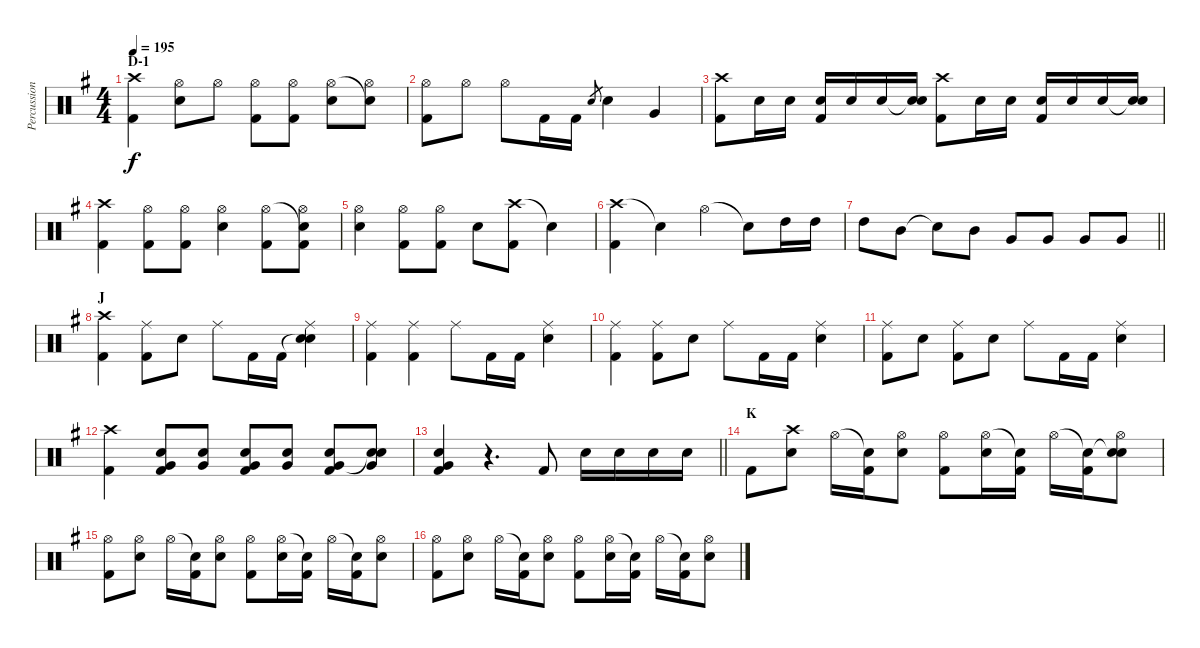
\track ("Percussion" "Percussion") {instrument percussion}
\staff {score}
\articulation defaults
\ts (4 4)
\section ("" "D-1")
\tempo 195
\clef neutral
\ks g
("Crash high (hit)" "Kick (hit) 2").4{dy f} ("Hi-Hat (open)" "Electric Snare (hit)").8 "Hi-Hat (open)".8 ("Hi-Hat (open)" "Kick (hit) 2").8 ("Hi-Hat (open)" "Kick (hit) 2").8 ("Hi-Hat (open)" "Electric Snare (hit)").8 ("Snare (hit)"{t} "Hi-Hat (open)").8 |
("Hi-Hat (open)" "Kick (hit) 2").8 "Hi-Hat (open)".8 "Hi-Hat (open)".8 "Kick (hit) 2".16 "Kick (hit) 2".16 "Electric Snare (hit)".8{gr} "Electric Snare (hit)".4 "Very Low Tom (hit)".4 |
("Crash high (hit)" "Kick (hit) 2").8 "Electric Snare (hit)".16 "Electric Snare (hit)".16 ("Electric Snare (hit)" "Kick (hit) 2").16 "Electric Snare (hit)".16 "Electric Snare (hit)".16 ("Snare (hit)"{t} "Electric Snare (hit)").16 ("Crash high (hit)" "Kick (hit) 2").8 "Electric Snare (hit)".16 "Electric Snare (hit)".16 ("Electric Snare (hit)" "Kick (hit) 2").16 "Electric Snare (hit)".16 "Electric Snare (hit)".16 ("Snare (hit)"{t} "Electric Snare (hit)").16 |
("Crash high (hit)" "Kick (hit) 2").4 ("Hi-Hat (open)" "Kick (hit) 2").8 ("Hi-Hat (open)" "Kick (hit) 2").8 ("Hi-Hat (open)" "Electric Snare (hit)").4 ("Hi-Hat (open)" "Kick (hit) 2").8 ("Snare (hit)"{t} "Hi-Hat (open)" "Kick (hit) 2").8 |
("Hi-Hat (open)" "Electric Snare (hit)").4 ("Hi-Hat (open)" "Kick (hit) 2").8 ("Hi-Hat (open)" "Kick (hit) 2").8 "Electric Snare (hit)".8 ("Crash high (hit)" "Kick (hit) 2").8 "Snare (hit)"{t}.4 |
("Crash high (hit)" "Kick (hit) 2").4 "Snare (hit)"{t}.4 "Hi-Hat (open)".4 "Snare (hit)"{t}.8 "High Tom (hit)".16 "High Tom (hit)".16 |
\barLineRight lightlight "High Tom (hit)".8 "Mid Tom (hit)".8 "Snare (hit)"{t}.8 "Mid Tom (hit)".8 "Very Low Tom (hit)".8 "Very Low Tom (hit)".8 "Very Low Tom (hit)".8 "Very Low Tom (hit)".8
|
\section ("" "J")
("Crash high (hit)" "Kick (hit) 2").4 ("Ride (middle)" "Kick (hit) 2").8 "Electric Snare (hit)".8 "Ride (middle)".8 "Kick (hit) 2".16 "Kick (hit) 2".16 ("Snare (hit)"{t} "Ride (middle)" "Electric Snare (hit)").4 |
("Ride (middle)" "Kick (hit) 2").4 ("Ride (middle)" "Kick (hit) 2").4 "Ride (middle)".8 "Kick (hit) 2".16 "Kick (hit) 2".16 ("Ride (middle)" "Electric Snare (hit)").4 |
("Ride (middle)" "Kick (hit) 2").4 ("Ride (middle)" "Kick (hit) 2").8 "Electric Snare (hit)".8 "Ride (middle)".8 "Kick (hit) 2".16 "Kick (hit) 2".16 ("Ride (middle)" "Electric Snare (hit)").4 |
("Ride (middle)" "Kick (hit) 2").8 "Electric Snare (hit)".8 ("Ride (middle)" "Kick (hit) 2").8 "Electric Snare (hit)".8 "Ride (middle)".8 "Kick (hit) 2".16 "Kick (hit) 2".16 ("Ride (middle)" "Electric Snare (hit)").4 |
("Crash high (hit)" "Kick (hit) 2").4 ("Very Low Tom (hit)" "Kick (hit) 2" "Electric Snare (hit)").8 ("Very Low Tom (hit)" "Electric Snare (hit)").8 ("Very Low Tom (hit)" "Kick (hit) 2" "Electric Snare (hit)").8 ("Very Low Tom (hit)" "Electric Snare (hit)").8 ("Very Low Tom (hit)" "Kick (hit) 2" "Electric Snare (hit)").8 ("Snare (hit)"{t} "Very Low Tom (hit)" "Electric Snare (hit)").8 |
\barLineRight lightlight
("Electric Snare (hit)" "Very Low Tom (hit)" "Kick (hit) 2").4 r.4{d} "Kick (hit) 2".8 "Electric Snare (hit)".16 "Electric Snare (hit)".16 "Electric Snare (hit)".16 "Electric Snare (hit)".16 |
\section ("" "K")
"Kick (hit) 2".8 ("Crash high (hit)" "Electric Snare (hit)").8 "Hi-Hat (open)".16 ("Snare (hit)"{t} "Kick (hit) 2").16 ("Hi-Hat (open)" "Electric Snare (hit)").8 ("Hi-Hat (open)" "Kick (hit) 2").8 ("Hi-Hat (open)" "Electric Snare (hit)").16 ("Snare (hit)"{t} "Kick (hit) 2").16 "Hi-Hat (open)".16 ("Snare (hit)"{t} "Kick (hit) 2").16 ("Snare (hit)"{t} "Hi-Hat (open)" "Electric Snare (hit)").8 |
("Hi-Hat (open)" "Kick (hit) 2").8 ("Hi-Hat (open)" "Electric Snare (hit)").8 "Hi-Hat (open)".16 ("Snare (hit)"{t} "Kick (hit) 2").16 ("Hi-Hat (open)" "Electric Snare (hit)").8 ("Hi-Hat (open)" "Kick (hit) 2").8 ("Hi-Hat (open)" "Electric Snare (hit)").16 ("Snare (hit)"{t} "Kick (hit) 2").16 "Hi-Hat (open)".16 ("Snare (hit)"{t} "Kick (hit) 2").16 ("Hi-Hat (open)" "Electric Snare (hit)").8 |
("Hi-Hat (open)" "Kick (hit) 2").8 ("Hi-Hat (open)" "Electric Snare (hit)").8 "Hi-Hat (open)".16 ("Snare (hit)"{t} "Kick (hit) 2").16 ("Hi-Hat (open)" "Electric Snare (hit)").8 ("Hi-Hat (open)" "Kick (hit) 2").8 ("Hi-Hat (open)" "Electric Snare (hit)").16 ("Snare (hit)"{t} "Kick (hit) 2").16 "Hi-Hat (open)".16 ("Snare (hit)"{t} "Kick (hit) 2").16 ("Hi-Hat (open)" "Electric Snare (hit)").8
